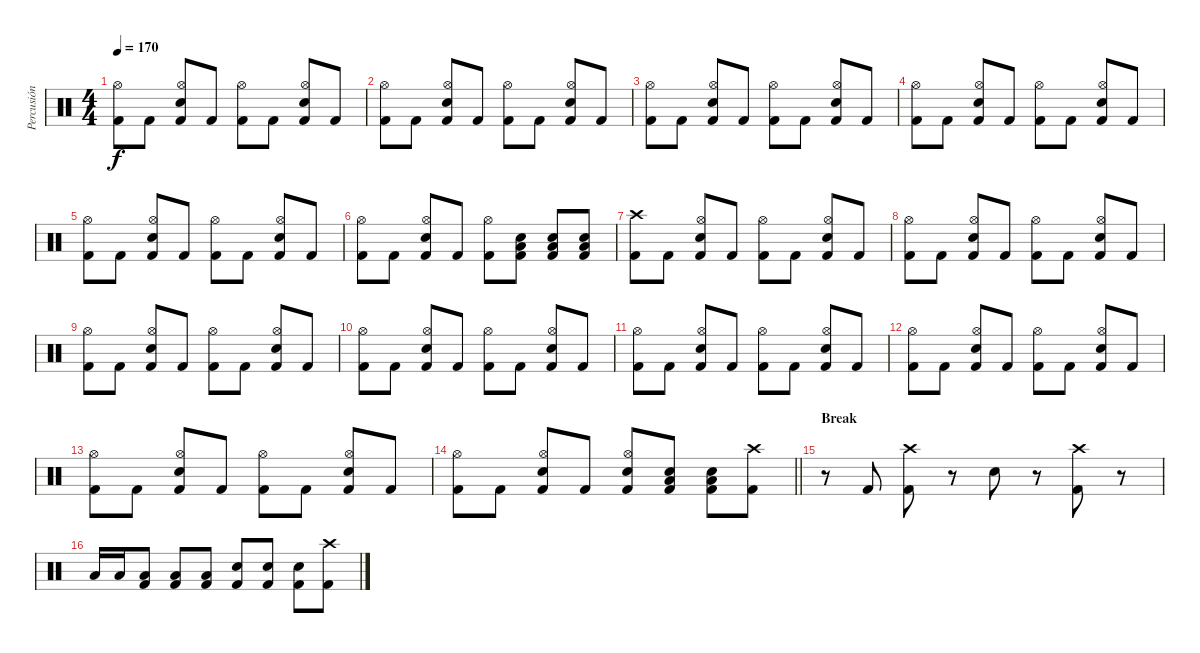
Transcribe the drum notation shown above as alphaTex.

\track ("Percusión" "Percusión") {instrument percussion}
\staff {score}
\articulation defaults
\ts (4 4)
\tempo 170
\clef neutral
\ks c
("Kick (hit) 2" "Hi-Hat (open)").8{dy f} "Kick (hit) 2".8 ("Kick (hit) 2" "Snare (hit) 2" "Hi-Hat (open)").8 "Kick (hit) 2".8 ("Kick (hit) 2" "Hi-Hat (open)").8 "Kick (hit) 2".8 ("Kick (hit) 2" "Snare (hit) 2" "Hi-Hat (open)").8 "Kick (hit) 2".8 |
("Kick (hit) 2" "Hi-Hat (open)").8 "Kick (hit) 2".8 ("Kick (hit) 2" "Snare (hit) 2" "Hi-Hat (open)").8 "Kick (hit) 2".8 ("Kick (hit) 2" "Hi-Hat (open)").8 "Kick (hit) 2".8 ("Kick (hit) 2" "Snare (hit) 2" "Hi-Hat (open)").8 "Kick (hit) 2".8 |
("Kick (hit) 2" "Hi-Hat (open)").8 "Kick (hit) 2".8 ("Kick (hit) 2" "Snare (hit) 2" "Hi-Hat (open)").8 "Kick (hit) 2".8 ("Kick (hit) 2" "Hi-Hat (open)").8 "Kick (hit) 2".8 ("Kick (hit) 2" "Snare (hit) 2" "Hi-Hat (open)").8 "Kick (hit) 2".8 |
("Kick (hit) 2" "Hi-Hat (open)").8 "Kick (hit) 2".8 ("Kick (hit) 2" "Snare (hit) 2" "Hi-Hat (open)").8 "Kick (hit) 2".8 ("Kick (hit) 2" "Hi-Hat (open)").8 "Kick (hit) 2".8 ("Kick (hit) 2" "Snare (hit) 2" "Hi-Hat (open)").8 "Kick (hit) 2".8 |
("Kick (hit) 2" "Hi-Hat (open)").8 "Kick (hit) 2".8 ("Kick (hit) 2" "Snare (hit) 2" "Hi-Hat (open)").8 "Kick (hit) 2".8 ("Kick (hit) 2" "Hi-Hat (open)").8 "Kick (hit) 2".8 ("Kick (hit) 2" "Snare (hit) 2" "Hi-Hat (open)").8 "Kick (hit) 2".8 |
("Kick (hit) 2" "Hi-Hat (open)").8 "Kick (hit) 2".8 ("Kick (hit) 2" "Snare (hit) 2" "Hi-Hat (open)").8 "Kick (hit) 2".8 ("Kick (hit) 2" "Hi-Hat (open)").8 ("Kick (hit) 2" "Snare (hit) 2" "Low Floor Tom (hit)").8 ("Kick (hit) 2" "Snare (hit) 2" "Low Floor Tom (hit)").8 ("Kick (hit) 2" "Snare (hit) 2" "Low Floor Tom (hit)").8 |
("Kick (hit) 2" "Crash high (hit)").8 "Kick (hit) 2".8 ("Kick (hit) 2" "Snare (hit) 2" "Hi-Hat (open)").8 "Kick (hit) 2".8 ("Kick (hit) 2" "Hi-Hat (open)").8 "Kick (hit) 2".8 ("Kick (hit) 2" "Snare (hit) 2" "Hi-Hat (open)").8 "Kick (hit) 2".8 |
("Kick (hit) 2" "Hi-Hat (open)").8 "Kick (hit) 2".8 ("Kick (hit) 2" "Snare (hit) 2" "Hi-Hat (open)").8 "Kick (hit) 2".8 ("Kick (hit) 2" "Hi-Hat (open)").8 "Kick (hit) 2".8 ("Kick (hit) 2" "Snare (hit) 2" "Hi-Hat (open)").8 "Kick (hit) 2".8 |
("Kick (hit) 2" "Hi-Hat (open)").8 "Kick (hit) 2".8 ("Kick (hit) 2" "Snare (hit) 2" "Hi-Hat (open)").8 "Kick (hit) 2".8 ("Kick (hit) 2" "Hi-Hat (open)").8 "Kick (hit) 2".8 ("Kick (hit) 2" "Snare (hit) 2" "Hi-Hat (open)").8 "Kick (hit) 2".8 |
("Kick (hit) 2" "Hi-Hat (open)").8 "Kick (hit) 2".8 ("Kick (hit) 2" "Snare (hit) 2" "Hi-Hat (open)").8 "Kick (hit) 2".8 ("Kick (hit) 2" "Hi-Hat (open)").8 "Kick (hit) 2".8 ("Kick (hit) 2" "Snare (hit) 2" "Hi-Hat (open)").8 "Kick (hit) 2".8 |
("Kick (hit) 2" "Hi-Hat (open)").8 "Kick (hit) 2".8 ("Kick (hit) 2" "Snare (hit) 2" "Hi-Hat (open)").8 "Kick (hit) 2".8 ("Kick (hit) 2" "Hi-Hat (open)").8 "Kick (hit) 2".8 ("Kick (hit) 2" "Snare (hit) 2" "Hi-Hat (open)").8 "Kick (hit) 2".8 |
("Kick (hit) 2" "Hi-Hat (open)").8 "Kick (hit) 2".8 ("Kick (hit) 2" "Snare (hit) 2" "Hi-Hat (open)").8 "Kick (hit) 2".8 ("Kick (hit) 2" "Hi-Hat (open)").8 "Kick (hit) 2".8 ("Kick (hit) 2" "Snare (hit) 2" "Hi-Hat (open)").8 "Kick (hit) 2".8 |
("Kick (hit) 2" "Hi-Hat (open)").8 "Kick (hit) 2".8 ("Kick (hit) 2" "Snare (hit) 2" "Hi-Hat (open)").8 "Kick (hit) 2".8 ("Kick (hit) 2" "Hi-Hat (open)").8 "Kick (hit) 2".8 ("Kick (hit) 2" "Snare (hit) 2" "Hi-Hat (open)").8 "Kick (hit) 2".8 |
\barLineRight lightlight
("Kick (hit) 2" "Hi-Hat (open)").8 "Kick (hit) 2".8 ("Kick (hit) 2" "Snare (hit) 2" "Hi-Hat (open)").8 "Kick (hit) 2".8 ("Kick (hit) 2" "Snare (hit) 2" "Hi-Hat (open)").8 ("Kick (hit) 2" "Snare (hit) 2" "Low Floor Tom (hit)").8 ("Kick (hit) 2" "Snare (hit) 2" "Low Floor Tom (hit)").8 ("Kick (hit) 2" "Crash high (hit)").8 |
\section ("" "Break")
r.8 "Kick (hit) 2".8 ("Kick (hit) 2" "Crash high (hit)").8 r.8 "Snare (hit) 2".8 r.8 ("Kick (hit) 2" "Crash high (hit)").8 r.8 |
"Low Tom (hit)".16 "Low Tom (hit)".16 ("Low Floor Tom (hit)" "Kick (hit) 2").8 ("Low Floor Tom (hit)" "Kick (hit) 2").8 ("Low Floor Tom (hit)" "Kick (hit) 2").8 ("Snare (hit) 2" "Kick (hit) 2").8 ("Kick (hit) 2" "Snare (hit) 2").8 ("Snare (hit) 2" "Kick (hit) 2").8 ("Kick (hit) 2" "Crash high (hit)").8
